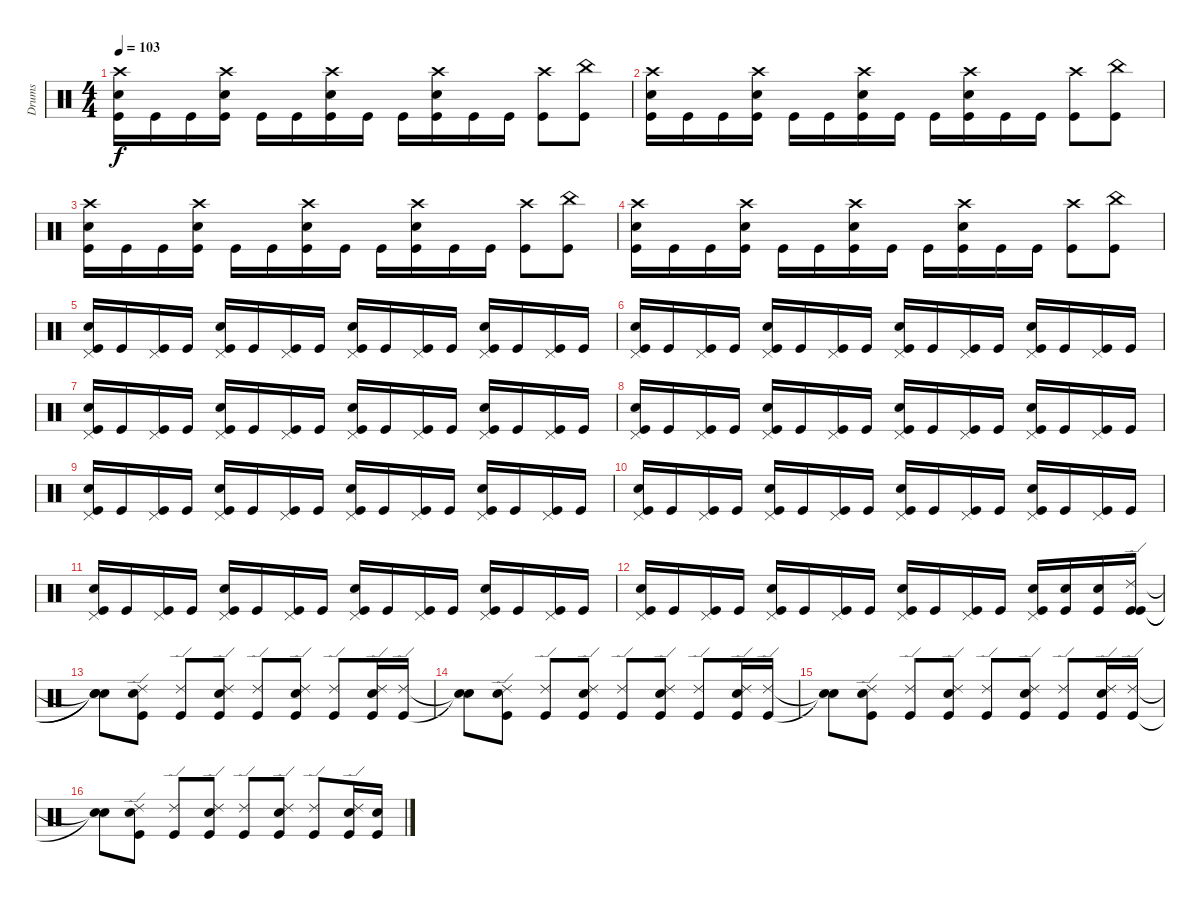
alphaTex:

\track ("Drums" "Drums") {instrument percussion}
\staff {score}
\articulation defaults
\ts (4 4)
\tempo 103
\clef neutral
\ks c
("Crash high (hit)" "Electric Snare (hit)" "Kick (hit)").16{dy f} "Kick (hit)".16 "Kick (hit)".16 ("Crash high (hit)" "Electric Snare (hit)" "Kick (hit)").16 "Kick (hit)".16 "Kick (hit)".16 ("Crash high (hit)" "Electric Snare (hit)" "Kick (hit)").16 "Kick (hit)".16 "Kick (hit)".16 ("Crash high (hit)" "Electric Snare (hit)" "Kick (hit)").16 "Kick (hit)".16 "Kick (hit)".16 ("Crash high (hit)" "Kick (hit)").8 ("China (hit)" "Kick (hit)").8 |
("Crash high (hit)" "Electric Snare (hit)" "Kick (hit)").16 "Kick (hit)".16 "Kick (hit)".16 ("Crash high (hit)" "Electric Snare (hit)" "Kick (hit)").16 "Kick (hit)".16 "Kick (hit)".16 ("Crash high (hit)" "Electric Snare (hit)" "Kick (hit)").16 "Kick (hit)".16 "Kick (hit)".16 ("Crash high (hit)" "Electric Snare (hit)" "Kick (hit)").16 "Kick (hit)".16 "Kick (hit)".16 ("Crash high (hit)" "Kick (hit)").8 ("China (hit)" "Kick (hit)").8 |
("Crash high (hit)" "Electric Snare (hit)" "Kick (hit)").16 "Kick (hit)".16 "Kick (hit)".16 ("Crash high (hit)" "Electric Snare (hit)" "Kick (hit)").16 "Kick (hit)".16 "Kick (hit)".16 ("Crash high (hit)" "Electric Snare (hit)" "Kick (hit)").16 "Kick (hit)".16 "Kick (hit)".16 ("Crash high (hit)" "Electric Snare (hit)" "Kick (hit)").16 "Kick (hit)".16 "Kick (hit)".16 ("Crash high (hit)" "Kick (hit)").8 ("China (hit)" "Kick (hit)").8 |
("Crash high (hit)" "Electric Snare (hit)" "Kick (hit)").16 "Kick (hit)".16 "Kick (hit)".16 ("Crash high (hit)" "Electric Snare (hit)" "Kick (hit)").16 "Kick (hit)".16 "Kick (hit)".16 ("Crash high (hit)" "Electric Snare (hit)" "Kick (hit)").16 "Kick (hit)".16 "Kick (hit)".16 ("Crash high (hit)" "Electric Snare (hit)" "Kick (hit)").16 "Kick (hit)".16 "Kick (hit)".16 ("Crash high (hit)" "Kick (hit)").8 ("China (hit)" "Kick (hit)").8 |
("Pedal Hi-Hat (hit)" "Electric Snare (hit)" "Kick (hit)").16 "Kick (hit)".16 ("Pedal Hi-Hat (hit)" "Kick (hit)").16 "Kick (hit)".16 ("Pedal Hi-Hat (hit)" "Electric Snare (hit)" "Kick (hit)").16 "Kick (hit)".16 ("Pedal Hi-Hat (hit)" "Kick (hit)").16 "Kick (hit)".16 ("Pedal Hi-Hat (hit)" "Electric Snare (hit)" "Kick (hit)").16 "Kick (hit)".16 ("Pedal Hi-Hat (hit)" "Kick (hit)").16 "Kick (hit)".16 ("Pedal Hi-Hat (hit)" "Electric Snare (hit)" "Kick (hit)").16 "Kick (hit)".16 ("Pedal Hi-Hat (hit)" "Kick (hit)").16 "Kick (hit)".16 |
("Pedal Hi-Hat (hit)" "Electric Snare (hit)" "Kick (hit)").16 "Kick (hit)".16 ("Pedal Hi-Hat (hit)" "Kick (hit)").16 "Kick (hit)".16 ("Pedal Hi-Hat (hit)" "Electric Snare (hit)" "Kick (hit)").16 "Kick (hit)".16 ("Pedal Hi-Hat (hit)" "Kick (hit)").16 "Kick (hit)".16 ("Pedal Hi-Hat (hit)" "Electric Snare (hit)" "Kick (hit)").16 "Kick (hit)".16 ("Pedal Hi-Hat (hit)" "Kick (hit)").16 "Kick (hit)".16 ("Pedal Hi-Hat (hit)" "Electric Snare (hit)" "Kick (hit)").16 "Kick (hit)".16 ("Pedal Hi-Hat (hit)" "Kick (hit)").16 "Kick (hit)".16 |
("Pedal Hi-Hat (hit)" "Electric Snare (hit)" "Kick (hit)").16 "Kick (hit)".16 ("Pedal Hi-Hat (hit)" "Kick (hit)").16 "Kick (hit)".16 ("Pedal Hi-Hat (hit)" "Electric Snare (hit)" "Kick (hit)").16 "Kick (hit)".16 ("Pedal Hi-Hat (hit)" "Kick (hit)").16 "Kick (hit)".16 ("Pedal Hi-Hat (hit)" "Electric Snare (hit)" "Kick (hit)").16 "Kick (hit)".16 ("Pedal Hi-Hat (hit)" "Kick (hit)").16 "Kick (hit)".16 ("Pedal Hi-Hat (hit)" "Electric Snare (hit)" "Kick (hit)").16 "Kick (hit)".16 ("Pedal Hi-Hat (hit)" "Kick (hit)").16 "Kick (hit)".16 |
("Pedal Hi-Hat (hit)" "Electric Snare (hit)" "Kick (hit)").16 "Kick (hit)".16 ("Pedal Hi-Hat (hit)" "Kick (hit)").16 "Kick (hit)".16 ("Pedal Hi-Hat (hit)" "Electric Snare (hit)" "Kick (hit)").16 "Kick (hit)".16 ("Pedal Hi-Hat (hit)" "Kick (hit)").16 "Kick (hit)".16 ("Pedal Hi-Hat (hit)" "Electric Snare (hit)" "Kick (hit)").16 "Kick (hit)".16 ("Pedal Hi-Hat (hit)" "Kick (hit)").16 "Kick (hit)".16 ("Pedal Hi-Hat (hit)" "Electric Snare (hit)" "Kick (hit)").16 "Kick (hit)".16 ("Pedal Hi-Hat (hit)" "Kick (hit)").16 "Kick (hit)".16 |
("Pedal Hi-Hat (hit)" "Electric Snare (hit)" "Kick (hit)").16 "Kick (hit)".16 ("Pedal Hi-Hat (hit)" "Kick (hit)").16 "Kick (hit)".16 ("Pedal Hi-Hat (hit)" "Electric Snare (hit)" "Kick (hit)").16 "Kick (hit)".16 ("Pedal Hi-Hat (hit)" "Kick (hit)").16 "Kick (hit)".16 ("Pedal Hi-Hat (hit)" "Electric Snare (hit)" "Kick (hit)").16 "Kick (hit)".16 ("Pedal Hi-Hat (hit)" "Kick (hit)").16 "Kick (hit)".16 ("Pedal Hi-Hat (hit)" "Electric Snare (hit)" "Kick (hit)").16 "Kick (hit)".16 ("Pedal Hi-Hat (hit)" "Kick (hit)").16 "Kick (hit)".16 |
("Pedal Hi-Hat (hit)" "Electric Snare (hit)" "Kick (hit)").16 "Kick (hit)".16 ("Pedal Hi-Hat (hit)" "Kick (hit)").16 "Kick (hit)".16 ("Pedal Hi-Hat (hit)" "Electric Snare (hit)" "Kick (hit)").16 "Kick (hit)".16 ("Pedal Hi-Hat (hit)" "Kick (hit)").16 "Kick (hit)".16 ("Pedal Hi-Hat (hit)" "Electric Snare (hit)" "Kick (hit)").16 "Kick (hit)".16 ("Pedal Hi-Hat (hit)" "Kick (hit)").16 "Kick (hit)".16 ("Pedal Hi-Hat (hit)" "Electric Snare (hit)" "Kick (hit)").16 "Kick (hit)".16 ("Pedal Hi-Hat (hit)" "Kick (hit)").16 "Kick (hit)".16 |
("Pedal Hi-Hat (hit)" "Electric Snare (hit)" "Kick (hit)").16 "Kick (hit)".16 ("Pedal Hi-Hat (hit)" "Kick (hit)").16 "Kick (hit)".16 ("Pedal Hi-Hat (hit)" "Electric Snare (hit)" "Kick (hit)").16 "Kick (hit)".16 ("Pedal Hi-Hat (hit)" "Kick (hit)").16 "Kick (hit)".16 ("Pedal Hi-Hat (hit)" "Electric Snare (hit)" "Kick (hit)").16 "Kick (hit)".16 ("Pedal Hi-Hat (hit)" "Kick (hit)").16 "Kick (hit)".16 ("Pedal Hi-Hat (hit)" "Electric Snare (hit)" "Kick (hit)").16 "Kick (hit)".16 ("Pedal Hi-Hat (hit)" "Kick (hit)").16 "Kick (hit)".16 |
("Pedal Hi-Hat (hit)" "Electric Snare (hit)" "Kick (hit)").16 "Kick (hit)".16 ("Pedal Hi-Hat (hit)" "Kick (hit)").16 "Kick (hit)".16 ("Pedal Hi-Hat (hit)" "Electric Snare (hit)" "Kick (hit)").16 "Kick (hit)".16 ("Pedal Hi-Hat (hit)" "Kick (hit)").16 "Kick (hit)".16 ("Pedal Hi-Hat (hit)" "Electric Snare (hit)" "Kick (hit)").16 "Kick (hit)".16 ("Pedal Hi-Hat (hit)" "Kick (hit)").16 "Kick (hit)".16 ("Pedal Hi-Hat (hit)" "Electric Snare (hit)" "Kick (hit)").16 ("Electric Snare (hit)" "Kick (hit)").16 ("Electric Snare (hit)" "Kick (hit)").16 ("Ride (edge) 2" "Kick (hit)" "Kick (hit)").16 |
("Snare (hit)"{t} "Snare (hit)"{t} "Snare (hit)"{t}).8 ("Ride (edge) 2" "Electric Snare (hit)" "Kick (hit)").8 ("Ride (edge) 2" "Kick (hit)").8 ("Ride (edge) 2" "Electric Snare (hit)" "Kick (hit)").8 ("Ride (edge) 2" "Kick (hit)").8 ("Ride (edge) 2" "Electric Snare (hit)" "Kick (hit)").8 ("Ride (edge) 2" "Kick (hit)").8 ("Ride (edge) 2" "Electric Snare (hit)" "Kick (hit)").16 ("Ride (edge) 2" "Kick (hit)").16 |
("Snare (hit)"{t} "Snare (hit)"{t}).8 ("Ride (edge) 2" "Electric Snare (hit)" "Kick (hit)").8 ("Ride (edge) 2" "Kick (hit)").8 ("Ride (edge) 2" "Electric Snare (hit)" "Kick (hit)").8 ("Ride (edge) 2" "Kick (hit)").8 ("Ride (edge) 2" "Electric Snare (hit)" "Kick (hit)").8 ("Ride (edge) 2" "Kick (hit)").8 ("Ride (edge) 2" "Electric Snare (hit)" "Kick (hit)").16 ("Ride (edge) 2" "Kick (hit)").16 |
("Snare (hit)"{t} "Snare (hit)"{t}).8 ("Ride (edge) 2" "Electric Snare (hit)" "Kick (hit)").8 ("Ride (edge) 2" "Kick (hit)").8 ("Ride (edge) 2" "Electric Snare (hit)" "Kick (hit)").8 ("Ride (edge) 2" "Kick (hit)").8 ("Ride (edge) 2" "Electric Snare (hit)" "Kick (hit)").8 ("Ride (edge) 2" "Kick (hit)").8 ("Ride (edge) 2" "Electric Snare (hit)" "Kick (hit)").16 ("Ride (edge) 2" "Kick (hit)").16 |
("Snare (hit)"{t} "Snare (hit)"{t}).8 ("Ride (edge) 2" "Electric Snare (hit)" "Kick (hit)").8 ("Ride (edge) 2" "Kick (hit)").8 ("Ride (edge) 2" "Electric Snare (hit)" "Kick (hit)").8 ("Ride (edge) 2" "Kick (hit)").8 ("Ride (edge) 2" "Electric Snare (hit)" "Kick (hit)").8 ("Ride (edge) 2" "Kick (hit)").8 ("Ride (edge) 2" "Electric Snare (hit)" "Kick (hit)").16 ("Electric Snare (hit)" "Kick (hit)").16
